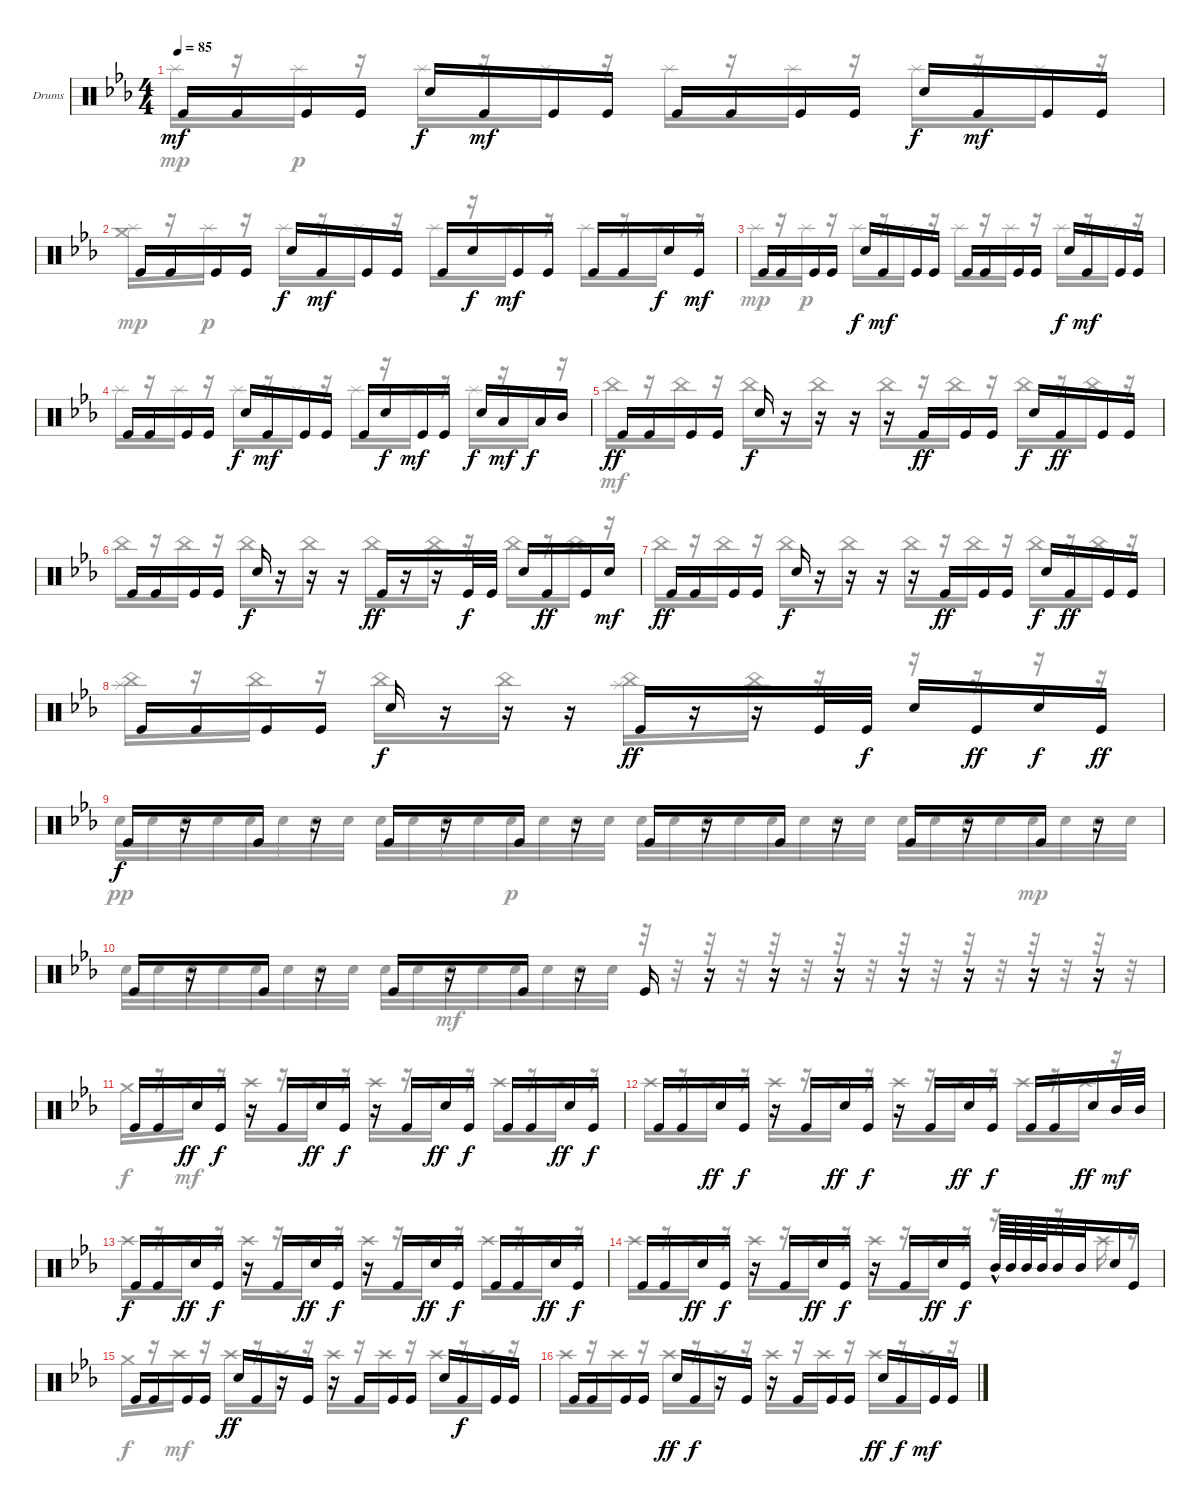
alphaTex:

\defaultSystemsLayout 4
\bracketExtendMode groupsimilarinstruments
\firstSystemTrackNameOrientation horizontal
\otherSystemsTrackNameOrientation horizontal
\track ("Drums" "Drums") {instrument percussion}
\staff {score}
\articulation defaults
\voice
\ts (4 4)
\tempo 85
\clef neutral
\ks eb "Kick (hit)".16{dy mf} "Kick (hit)".16 "Kick (hit)".16 "Kick (hit)".16 "Snare (hit) 2".16{dy f} "Kick (hit)".16{dy mf} "Kick (hit)".16 "Kick (hit)".16 "Kick (hit)".16 "Kick (hit)".16 "Kick (hit)".16 "Kick (hit)".16 "Snare (hit) 2".16{dy f} "Kick (hit)".16{dy mf} "Kick (hit)".16 "Kick (hit)".16
|
"Kick (hit)".16 "Kick (hit)".16 "Kick (hit)".16 "Kick (hit)".16 "Snare (hit) 2".16{dy f} "Kick (hit)".16{dy mf} "Kick (hit)".16 "Kick (hit)".16 "Kick (hit)".16 "Snare (hit) 2".16{dy f} "Kick (hit)".16{dy mf} "Kick (hit)".16 "Kick (hit)".16 "Kick (hit)".16 "Snare (hit) 2".16{dy f} "Kick (hit)".16{dy mf} |
"Kick (hit)".16 "Kick (hit)".16 "Kick (hit)".16 "Kick (hit)".16 "Snare (hit) 2".16{dy f} "Kick (hit)".16{dy mf} "Kick (hit)".16 "Kick (hit)".16 "Kick (hit)".16 "Kick (hit)".16 "Kick (hit)".16 "Kick (hit)".16 "Snare (hit) 2".16{dy f} "Kick (hit)".16{dy mf} "Kick (hit)".16 "Kick (hit)".16 |
"Kick (hit)".16 "Kick (hit)".16 "Kick (hit)".16 "Kick (hit)".16 "Snare (hit) 2".16{dy f} "Kick (hit)".16{dy mf} "Kick (hit)".16 "Kick (hit)".16 "Kick (hit)".16 "Snare (hit) 2".16{dy f} "Kick (hit)".16{dy mf} "Kick (hit)".16 "Snare (hit) 2".16{dy f} "Low Tom (hit)".16{dy mf} "Low Tom (hit)".16{dy f} "Mid Tom (hit)".16 |
\scale
0.255131 "Kick (hit)".16{dy ff} "Kick (hit)".16 "Kick (hit)".16 "Kick (hit)".16 "Snare (hit) 2".16{dy f} r.16 r.16 r.16 r.16 "Kick (hit)".16{dy ff} "Kick (hit)".16 "Kick (hit)".16 "Snare (hit) 2".16{dy f} "Kick (hit)".16{dy ff} "Kick (hit)".16 "Kick (hit)".16 |
\scale
0.258535 "Kick (hit)".16 "Kick (hit)".16 "Kick (hit)".16 "Kick (hit)".16 "Snare (hit) 2".16{dy f} r.16 r.16 r.16 "Kick (hit)".16{dy ff} r.16 r.16 "Kick (hit)".32{dy f} "Kick (hit)".32 "Snare (hit) 2".16 "Kick (hit)".16{dy ff} "Kick (hit)".16 "Snare (hit) 2".16{dy mf} |
\scale
0.176557 "Kick (hit)".16{dy ff} "Kick (hit)".16 "Kick (hit)".16 "Kick (hit)".16 "Snare (hit) 2".16{dy f} r.16 r.16 r.16 r.16 "Kick (hit)".16{dy ff} "Kick (hit)".16 "Kick (hit)".16 "Snare (hit) 2".16{dy f} "Kick (hit)".16{dy ff} "Kick (hit)".16 "Kick (hit)".16 |
\scale
0.309956 "Kick (hit)".16 "Kick (hit)".16 "Kick (hit)".16 "Kick (hit)".16 "Snare (hit) 2".16{dy f} r.16 r.16 r.16 "Kick (hit)".16{dy ff} r.16 r.16 "Kick (hit)".32 "Kick (hit)".32{dy f} "Snare (hit) 2".16 "Kick (hit)".16{dy ff} "Snare (hit) 2".16{dy f} "Kick (hit)".16{dy ff} |
"Kick (hit)".16{dy f} r.16 "Kick (hit)".16 r.16 "Kick (hit)".16 r.16 "Kick (hit)".16 r.16 "Kick (hit)".16 r.16 "Kick (hit)".16 r.16 "Kick (hit)".16 r.16 "Kick (hit)".16 r.16 |
"Kick (hit)".16 r.16 "Kick (hit)".16 r.16 "Kick (hit)".16 r.16 "Kick (hit)".16 r.16 "Kick (hit)".16 r.16 r.16 r.16 r.16 r.16 r.16 r.16 |
"Kick (hit)".16 "Kick (hit)".16 "Snare (hit) 2".16{dy ff} "Kick (hit)".16{dy f} r.16 "Kick (hit)".16 "Snare (hit) 2".16{dy ff} "Kick (hit)".16{dy f} r.16 "Kick (hit)".16 "Snare (hit) 2".16{dy ff} "Kick (hit)".16{dy f} "Kick (hit)".16 "Kick (hit)".16 "Snare (hit) 2".16{dy ff} "Kick (hit)".16{dy f} |
"Kick (hit)".16 "Kick (hit)".16 "Snare (hit) 2".16{dy ff} "Kick (hit)".16{dy f} r.16 "Kick (hit)".16 "Snare (hit) 2".16{dy ff} "Kick (hit)".16{dy f} r.16 "Kick (hit)".16 "Snare (hit) 2".16{dy ff} "Kick (hit)".16{dy f} "Kick (hit)".16 "Kick (hit)".16 "Snare (hit) 2".16{dy ff} "Mid Tom (hit)".32{dy mf} "Mid Tom (hit)".32 |
"Kick (hit)".16{dy f} "Kick (hit)".16 "Snare (hit) 2".16{dy ff} "Kick (hit)".16{dy f} r.16 "Kick (hit)".16 "Snare (hit) 2".16{dy ff} "Kick (hit)".16{dy f} r.16 "Kick (hit)".16 "Snare (hit) 2".16{dy ff} "Kick (hit)".16{dy f} "Kick (hit)".16 "Kick (hit)".16 "Snare (hit) 2".16{dy ff} "Kick (hit)".16{dy f} |
"Kick (hit)".16 "Kick (hit)".16 "Snare (hit) 2".16{dy ff} "Kick (hit)".16{dy f} r.16 "Kick (hit)".16 "Snare (hit) 2".16{dy ff} "Kick (hit)".16{dy f} r.16 "Kick (hit)".16 "Snare (hit) 2".16{dy ff} "Kick (hit)".16{dy f} "Mid Tom (hit)"{hac}.64 "Mid Tom (hit)".64 "Mid Tom (hit)".64 "Mid Tom (hit)".64 "Mid Tom (hit)".32 "Mid Tom (hit)".32 "Snare (hit) 2".16 "Kick (hit)".16 |
"Kick (hit)".16 "Kick (hit)".16 "Kick (hit)".16 "Kick (hit)".16 "Snare (hit) 2".16{dy ff} "Kick (hit)".16 r.16 "Kick (hit)".16 r.16 "Kick (hit)".16 "Kick (hit)".16 "Kick (hit)".16 "Snare (hit) 2".16 "Kick (hit)".16{dy f} "Kick (hit)".16 "Kick (hit)".16 |
"Kick (hit)".16 "Kick (hit)".16 "Kick (hit)".16 "Kick (hit)".16 "Snare (hit) 2".16{dy ff} "Kick (hit)".16{dy f} r.16 "Kick (hit)".16 r.16 "Kick (hit)".16 "Kick (hit)".16 "Kick (hit)".16 "Snare (hit) 2".16{dy ff} "Kick (hit)".16{dy f} "Kick (hit)".16{dy mf} "Kick (hit)".16
\voice
\clef neutral
\ottava regular
\simile none
\ks eb "Splash (hit)".16{dy mp}
r.16 "Splash (hit)".16{dy p} r.16 "Splash (hit)".16 r.16 "Splash (hit)".16 r.16 "Splash (hit)".16 r.16 "Splash (hit)".16 r.16 "Splash (hit)".16 r.16 "Splash (hit)".16 r.16 |
("Splash (hit)" "Crash medium (hit)").16{dy mp} r.16 "Splash (hit)".16{dy p} r.16 "Splash (hit)".16 r.16 "Splash (hit)".16 r.16 "Splash (hit)".16 r.16 "Splash (hit)".16 r.16 "Splash (hit)".16 r.16 "Splash (hit)".16 r.16 |
"Splash (hit)".16{dy mp} r.16 "Splash (hit)".16{dy p} r.16 "Splash (hit)".16 r.16 "Splash (hit)".16 r.16 "Splash (hit)".16 r.16 "Splash (hit)".16 r.16 "Splash (hit)".16 r.16 "Splash (hit)".16 r.16 |
"Splash (hit)".16 r.16 "Splash (hit)".16 r.16 "Splash (hit)".16 r.16 "Splash (hit)".16 r.16 "Splash (hit)".16 r.16 "Splash (hit)".16 r.16 "Splash (hit)".16 r.16 "Splash (hit)".16 r.16 |
"China (hit)".16{dy mf} r.16 "China (hit)".16 r.16 "China (hit)".16 r.16 "China (hit)".16 r.16 "China (hit)".16 r.16 "China (hit)".16 r.16 "China (hit)".16 r.16 "China (hit)".16 r.16 |
"China (hit)".16 r.16 "China (hit)".16 r.16 "China (hit)".16 r.16 "China (hit)".16 r.16 "China (hit)".16 r.16 "China (hit)".16 r.16 "China (hit)".16 r.16 "China (hit)".16 r.16 |
"China (hit)".16 r.16 "China (hit)".16 r.16 "China (hit)".16 r.16 "China (hit)".16 r.16 "China (hit)".16 r.16 "China (hit)".16 r.16 "China (hit)".16 r.16 "China (hit)".16 r.16 |
("China (hit)" "Splash (hit)").16 r.16 "China (hit)".16 r.16 "China (hit)".16 r.16 "China (hit)".16 r.16 ("China (hit)" "Splash (hit)").16 r.16 "China (hit)".16 r.16 r.16 r.16 r.16 r.16 |
"Snare (hit) 2".32{dy pp} "Snare (hit) 2".32 "Snare (hit) 2".32 "Snare (hit) 2".32 "Snare (hit) 2".32 "Snare (hit) 2".32 "Snare (hit) 2".32 "Snare (hit) 2".32 "Snare (hit) 2".32 "Snare (hit) 2".32 "Snare (hit) 2".32 "Snare (hit) 2".32 "Snare (hit) 2".32{dy p} "Snare (hit) 2".32 "Snare (hit) 2".32 "Snare (hit) 2".32 "Snare (hit) 2".32 "Snare (hit) 2".32 "Snare (hit) 2".32 "Snare (hit) 2".32 "Snare (hit) 2".32 "Snare (hit) 2".32 "Snare (hit) 2".32 "Snare (hit) 2".32 "Snare (hit) 2".32 "Snare (hit) 2".32 "Snare (hit) 2".32 "Snare (hit) 2".32 "Snare (hit) 2".32{dy mp} "Snare (hit) 2".32 "Snare (hit) 2".32 "Snare (hit) 2".32 |
"Snare (hit) 2".32 "Snare (hit) 2".32 "Snare (hit) 2".32 "Snare (hit) 2".32 "Snare (hit) 2".32 "Snare (hit) 2".32 "Snare (hit) 2".32 "Snare (hit) 2".32 "Snare (hit) 2".32 "Snare (hit) 2".32 "Snare (hit) 2".32{dy mf} "Snare (hit) 2".32 "Snare (hit) 2".32 "Snare (hit) 2".32 "Snare (hit) 2".32 "Snare (hit) 2".32 r.32 r.32 r.32 r.32 r.32 r.32 r.32 r.32 r.32 r.32 r.32 r.32 r.32 r.32 r.32 r.32 |
"Crash medium (hit)".16{dy f} r.16 "Crash high (hit)".16{dy mf} r.16 "Crash high (hit)".16 r.16 "Crash high (hit)".16 r.16 "Crash high (hit)".16 r.16 "Crash high (hit)".16 r.16 "Crash high (hit)".16 r.16 "Crash high (hit)".16 r.16 |
"Crash high (hit)".16 r.16 "Crash high (hit)".16 r.16 "Crash high (hit)".16 r.16 "Crash high (hit)".16 r.16 "Crash high (hit)".16 r.16 "Crash high (hit)".16 r.16 "Crash high (hit)".16 r.16 "Crash high (hit)".16 r.16 |
"Crash high (hit)".16 r.16 "Crash high (hit)".16 r.16 "Crash high (hit)".16 r.16 "Crash high (hit)".16 r.16 "Crash high (hit)".16 r.16 "Crash high (hit)".16 r.16 "Crash high (hit)".16 r.16 "Crash high (hit)".16 r.16 |
"Crash high (hit)".16 r.16 "Crash high (hit)".16 r.16 "Crash high (hit)".16 r.16 "Crash high (hit)".16 r.16 "Crash high (hit)".16 r.16 "Crash high (hit)".16 r.16 r.16 r.16 "Crash high (hit)".16 r.16 |
"Crash medium (hit)".16{dy f} r.16 "Crash high (hit)".16{dy mf} r.16 "Crash high (hit)".16 r.16 "Crash high (hit)".16 r.16 "Crash high (hit)".16 r.16 "Crash high (hit)".16 r.16 "Crash high (hit)".16 r.16 "Crash high (hit)".16 r.16 |
"Crash high (hit)".16 r.16 "Crash high (hit)".16 r.16 "Crash high (hit)".16 r.16 "Crash high (hit)".16 r.16 "Crash high (hit)".16 r.16 "Crash high (hit)".16 r.16 "Crash high (hit)".16 r.16 "Crash high (hit)".16 r.16
